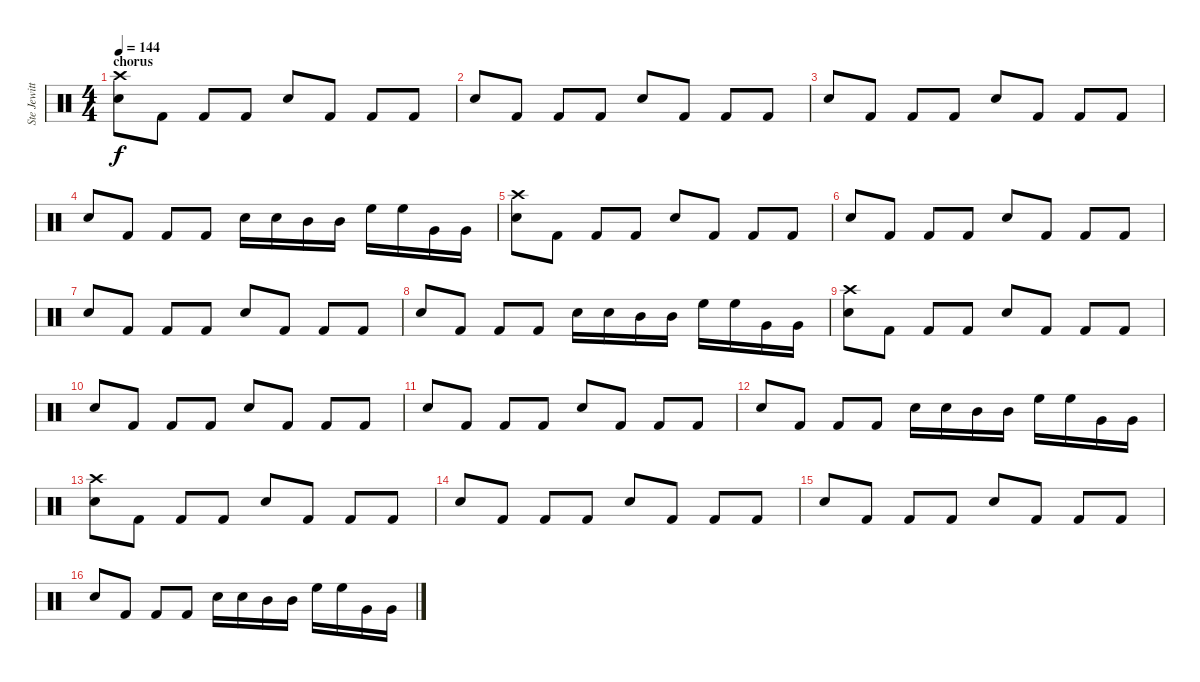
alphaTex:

\track ("Ste Jewitt (Drummer)" "Ste Jewitt") {instrument percussion}
\staff {score}
\articulation defaults
\ts (4 4)
\section ("" "chorus")
\tempo 144
\clef neutral
\ks c
("Crash high (hit)" "Snare (hit) 2").8{dy f} "Kick (hit) 2".8 "Kick (hit) 2".8 "Kick (hit) 2".8 "Snare (hit) 2".8 "Kick (hit) 2".8 "Kick (hit) 2".8 "Kick (hit) 2".8 |
"Snare (hit) 2".8 "Kick (hit) 2".8 "Kick (hit) 2".8 "Kick (hit) 2".8 "Snare (hit) 2".8 "Kick (hit) 2".8 "Kick (hit) 2".8 "Kick (hit) 2".8 |
"Snare (hit) 2".8 "Kick (hit) 2".8 "Kick (hit) 2".8 "Kick (hit) 2".8 "Snare (hit) 2".8 "Kick (hit) 2".8 "Kick (hit) 2".8 "Kick (hit) 2".8 |
"Snare (hit) 2".8 "Kick (hit) 2".8 "Kick (hit) 2".8 "Kick (hit) 2".8 "Snare (hit) 2".16 "Snare (hit) 2".16 "Mid Tom (hit)".16 "Mid Tom (hit)".16 "High Floor Tom (hit)".16 "High Floor Tom (hit)".16 "Very Low Tom (hit)".16 "Very Low Tom (hit)".16 |
("Crash high (hit)" "Snare (hit) 2").8 "Kick (hit) 2".8 "Kick (hit) 2".8 "Kick (hit) 2".8 "Snare (hit) 2".8 "Kick (hit) 2".8 "Kick (hit) 2".8 "Kick (hit) 2".8 |
"Snare (hit) 2".8 "Kick (hit) 2".8 "Kick (hit) 2".8 "Kick (hit) 2".8 "Snare (hit) 2".8 "Kick (hit) 2".8 "Kick (hit) 2".8 "Kick (hit) 2".8 |
"Snare (hit) 2".8 "Kick (hit) 2".8 "Kick (hit) 2".8 "Kick (hit) 2".8 "Snare (hit) 2".8 "Kick (hit) 2".8 "Kick (hit) 2".8 "Kick (hit) 2".8 |
"Snare (hit) 2".8 "Kick (hit) 2".8 "Kick (hit) 2".8 "Kick (hit) 2".8 "Snare (hit) 2".16 "Snare (hit) 2".16 "Mid Tom (hit)".16 "Mid Tom (hit)".16 "High Floor Tom (hit)".16 "High Floor Tom (hit)".16 "Very Low Tom (hit)".16 "Very Low Tom (hit)".16 |
("Crash high (hit)" "Snare (hit) 2").8 "Kick (hit) 2".8 "Kick (hit) 2".8 "Kick (hit) 2".8 "Snare (hit) 2".8 "Kick (hit) 2".8 "Kick (hit) 2".8 "Kick (hit) 2".8 |
"Snare (hit) 2".8 "Kick (hit) 2".8 "Kick (hit) 2".8 "Kick (hit) 2".8 "Snare (hit) 2".8 "Kick (hit) 2".8 "Kick (hit) 2".8 "Kick (hit) 2".8 |
"Snare (hit) 2".8 "Kick (hit) 2".8 "Kick (hit) 2".8 "Kick (hit) 2".8 "Snare (hit) 2".8 "Kick (hit) 2".8 "Kick (hit) 2".8 "Kick (hit) 2".8 |
"Snare (hit) 2".8 "Kick (hit) 2".8 "Kick (hit) 2".8 "Kick (hit) 2".8 "Snare (hit) 2".16 "Snare (hit) 2".16 "Mid Tom (hit)".16 "Mid Tom (hit)".16 "High Floor Tom (hit)".16 "High Floor Tom (hit)".16 "Very Low Tom (hit)".16 "Very Low Tom (hit)".16 |
("Crash high (hit)" "Snare (hit) 2").8 "Kick (hit) 2".8 "Kick (hit) 2".8 "Kick (hit) 2".8 "Snare (hit) 2".8 "Kick (hit) 2".8 "Kick (hit) 2".8 "Kick (hit) 2".8 |
"Snare (hit) 2".8 "Kick (hit) 2".8 "Kick (hit) 2".8 "Kick (hit) 2".8 "Snare (hit) 2".8 "Kick (hit) 2".8 "Kick (hit) 2".8 "Kick (hit) 2".8 |
"Snare (hit) 2".8 "Kick (hit) 2".8 "Kick (hit) 2".8 "Kick (hit) 2".8 "Snare (hit) 2".8 "Kick (hit) 2".8 "Kick (hit) 2".8 "Kick (hit) 2".8 |
"Snare (hit) 2".8 "Kick (hit) 2".8 "Kick (hit) 2".8 "Kick (hit) 2".8 "Snare (hit) 2".16 "Snare (hit) 2".16 "Mid Tom (hit)".16 "Mid Tom (hit)".16 "High Floor Tom (hit)".16 "High Floor Tom (hit)".16 "Very Low Tom (hit)".16 "Very Low Tom (hit)".16
